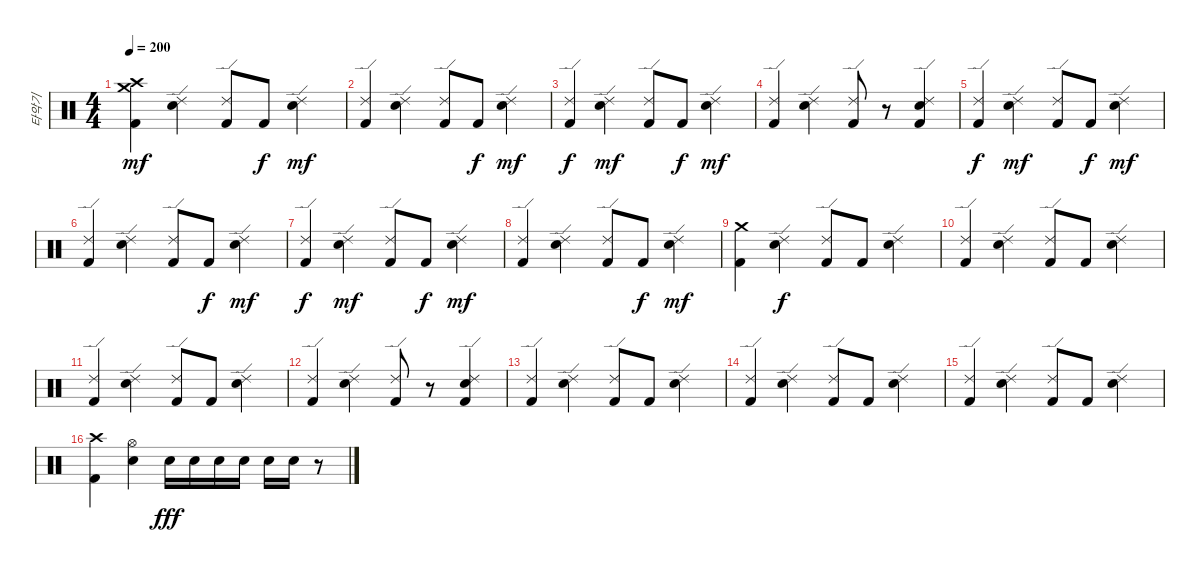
\track ("타악기" "타악기") {instrument percussion}
\staff {score}
\articulation defaults
\ts (4 4)
\tempo 200
\clef neutral
\ks c
("Crash high (hit)" "Crash medium (hit)" "Kick (hit) 2").4{dy mf} ("Ride (edge) 2" "Snare (hit) 2").4 ("Ride (edge) 2" "Kick (hit) 2").8 "Kick (hit) 2".8{dy f} ("Ride (edge) 2" "Snare (hit) 2").4{dy mf} |
("Ride (edge) 2" "Kick (hit) 2").4 ("Ride (edge) 2" "Snare (hit) 2").4 ("Ride (edge) 2" "Kick (hit) 2").8 "Kick (hit) 2".8{dy f} ("Ride (edge) 2" "Snare (hit) 2").4{dy mf} |
("Ride (edge) 2" "Kick (hit) 2").4{dy f} ("Ride (edge) 2" "Snare (hit) 2").4{dy mf} ("Ride (edge) 2" "Kick (hit) 2").8 "Kick (hit) 2".8{dy f} ("Ride (edge) 2" "Snare (hit) 2").4{dy mf} |
("Ride (edge) 2" "Kick (hit) 2").4 ("Ride (edge) 2" "Snare (hit) 2").4 ("Ride (edge) 2" "Kick (hit) 2").8 r.8 ("Ride (edge) 2" "Snare (hit) 2" "Kick (hit) 2").4 |
("Ride (edge) 2" "Kick (hit) 2").4{dy f} ("Ride (edge) 2" "Snare (hit) 2").4{dy mf} ("Ride (edge) 2" "Kick (hit) 2").8 "Kick (hit) 2".8{dy f} ("Ride (edge) 2" "Snare (hit) 2").4{dy mf} |
("Ride (edge) 2" "Kick (hit) 2").4 ("Ride (edge) 2" "Snare (hit) 2").4 ("Ride (edge) 2" "Kick (hit) 2").8 "Kick (hit) 2".8{dy f} ("Ride (edge) 2" "Snare (hit) 2").4{dy mf} |
("Ride (edge) 2" "Kick (hit) 2").4{dy f} ("Ride (edge) 2" "Snare (hit) 2").4{dy mf} ("Ride (edge) 2" "Kick (hit) 2").8 "Kick (hit) 2".8{dy f} ("Ride (edge) 2" "Snare (hit) 2").4{dy mf} |
("Ride (edge) 2" "Kick (hit) 2").4 ("Ride (edge) 2" "Snare (hit) 2").4 ("Ride (edge) 2" "Kick (hit) 2").8 "Kick (hit) 2".8{dy f} ("Ride (edge) 2" "Snare (hit) 2").4{dy mf} |
("Crash medium (hit)" "Kick (hit) 2").4 ("Ride (edge) 2" "Snare (hit) 2").4{dy f} ("Ride (edge) 2" "Kick (hit) 2").8 "Kick (hit) 2".8 ("Ride (edge) 2" "Snare (hit) 2").4 |
("Ride (edge) 2" "Kick (hit) 2").4 ("Ride (edge) 2" "Snare (hit) 2").4 ("Ride (edge) 2" "Kick (hit) 2").8 "Kick (hit) 2".8 ("Ride (edge) 2" "Snare (hit) 2").4 |
("Ride (edge) 2" "Kick (hit) 2").4 ("Ride (edge) 2" "Snare (hit) 2").4 ("Ride (edge) 2" "Kick (hit) 2").8 "Kick (hit) 2".8 ("Ride (edge) 2" "Snare (hit) 2").4 |
("Ride (edge) 2" "Kick (hit) 2").4 ("Ride (edge) 2" "Snare (hit) 2").4 ("Ride (edge) 2" "Kick (hit) 2").8 r.8 ("Ride (edge) 2" "Snare (hit) 2" "Kick (hit) 2").4 |
("Ride (edge) 2" "Kick (hit) 2").4 ("Ride (edge) 2" "Snare (hit) 2").4 ("Ride (edge) 2" "Kick (hit) 2").8 "Kick (hit) 2".8 ("Ride (edge) 2" "Snare (hit) 2").4 |
("Ride (edge) 2" "Kick (hit) 2").4 ("Ride (edge) 2" "Snare (hit) 2").4 ("Ride (edge) 2" "Kick (hit) 2").8 "Kick (hit) 2".8 ("Ride (edge) 2" "Snare (hit) 2").4 |
("Ride (edge) 2" "Kick (hit) 2").4 ("Ride (edge) 2" "Snare (hit) 2").4 ("Ride (edge) 2" "Kick (hit) 2").8 "Kick (hit) 2".8 ("Ride (edge) 2" "Snare (hit) 2").4 |
("Crash high (hit)" "Kick (hit) 2").4 ("Hi-Hat (open)" "Snare (hit) 2").4 "Snare (hit) 2".16{dy fff} "Snare (hit) 2".16 "Snare (hit) 2".16 "Snare (hit) 2".16 "Snare (hit) 2".16 "Snare (hit) 2".16 r.8
